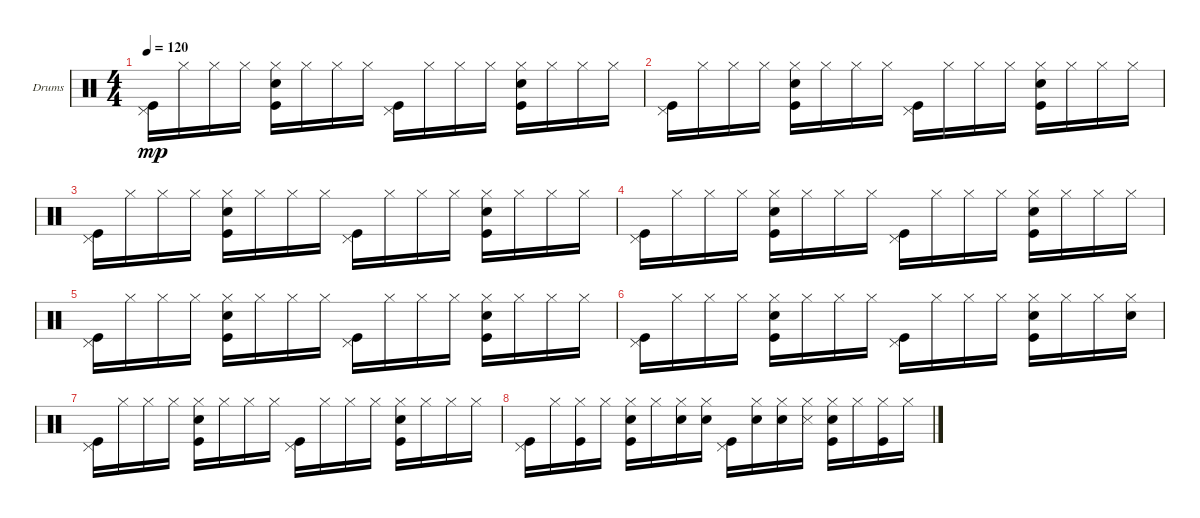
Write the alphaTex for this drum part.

\bracketExtendMode groupsimilarinstruments
\firstSystemTrackNameOrientation horizontal
\otherSystemsTrackNameOrientation horizontal
\track ("Ударные" "Drums") {instrument percussion}
\staff {score}
\articulation defaults
\ts (4 4)
\tempo 120
\clef neutral
\ks c
("Pedal Hi-Hat (hit)" "Kick (hit)").16{dy mp} "Hi-Hat (closed)".16 "Hi-Hat (closed)".16 "Hi-Hat (closed)".16 ("Hi-Hat (closed)" "Snare (hit) 2" "Kick (hit)").16 "Hi-Hat (closed)".16 "Hi-Hat (closed)".16 "Hi-Hat (closed)".16 ("Pedal Hi-Hat (hit)" "Kick (hit)").16 "Hi-Hat (closed)".16 "Hi-Hat (closed)".16 "Hi-Hat (closed)".16 ("Hi-Hat (closed)" "Snare (hit) 2" "Kick (hit)").16 "Hi-Hat (closed)".16 "Hi-Hat (closed)".16 "Hi-Hat (closed)".16 |
("Pedal Hi-Hat (hit)" "Kick (hit)").16 "Hi-Hat (closed)".16 "Hi-Hat (closed)".16 "Hi-Hat (closed)".16 ("Hi-Hat (closed)" "Snare (hit) 2" "Kick (hit)").16 "Hi-Hat (closed)".16 "Hi-Hat (closed)".16 "Hi-Hat (closed)".16 ("Pedal Hi-Hat (hit)" "Kick (hit)").16 "Hi-Hat (closed)".16 "Hi-Hat (closed)".16 "Hi-Hat (closed)".16 ("Hi-Hat (closed)" "Snare (hit) 2" "Kick (hit)").16 "Hi-Hat (closed)".16 "Hi-Hat (closed)".16 "Hi-Hat (closed)".16 |
("Pedal Hi-Hat (hit)" "Kick (hit)").16 "Hi-Hat (closed)".16 "Hi-Hat (closed)".16 "Hi-Hat (closed)".16 ("Hi-Hat (closed)" "Snare (hit) 2" "Kick (hit)").16 "Hi-Hat (closed)".16 "Hi-Hat (closed)".16 "Hi-Hat (closed)".16 ("Pedal Hi-Hat (hit)" "Kick (hit)").16 "Hi-Hat (closed)".16 "Hi-Hat (closed)".16 "Hi-Hat (closed)".16 ("Hi-Hat (closed)" "Snare (hit) 2" "Kick (hit)").16 "Hi-Hat (closed)".16 "Hi-Hat (closed)".16 "Hi-Hat (closed)".16 |
("Pedal Hi-Hat (hit)" "Kick (hit)").16 "Hi-Hat (closed)".16 "Hi-Hat (closed)".16 "Hi-Hat (closed)".16 ("Hi-Hat (closed)" "Snare (hit) 2" "Kick (hit)").16 "Hi-Hat (closed)".16 "Hi-Hat (closed)".16 "Hi-Hat (closed)".16 ("Pedal Hi-Hat (hit)" "Kick (hit)").16 "Hi-Hat (closed)".16 "Hi-Hat (closed)".16 "Hi-Hat (closed)".16 ("Hi-Hat (closed)" "Snare (hit) 2" "Kick (hit)").16 "Hi-Hat (closed)".16 "Hi-Hat (closed)".16 "Hi-Hat (closed)".16 |
("Pedal Hi-Hat (hit)" "Kick (hit)").16 "Hi-Hat (closed)".16 "Hi-Hat (closed)".16 "Hi-Hat (closed)".16 ("Hi-Hat (closed)" "Snare (hit) 2" "Kick (hit)").16 "Hi-Hat (closed)".16 "Hi-Hat (closed)".16 "Hi-Hat (closed)".16 ("Pedal Hi-Hat (hit)" "Kick (hit)").16 "Hi-Hat (closed)".16 "Hi-Hat (closed)".16 "Hi-Hat (closed)".16 ("Hi-Hat (closed)" "Snare (hit) 2" "Kick (hit)").16 "Hi-Hat (closed)".16 "Hi-Hat (closed)".16 "Hi-Hat (closed)".16 |
("Pedal Hi-Hat (hit)" "Kick (hit)").16 "Hi-Hat (closed)".16 "Hi-Hat (closed)".16 "Hi-Hat (closed)".16 ("Hi-Hat (closed)" "Snare (hit) 2" "Kick (hit)").16 "Hi-Hat (closed)".16 "Hi-Hat (closed)".16 "Hi-Hat (closed)".16 ("Pedal Hi-Hat (hit)" "Kick (hit)").16 "Hi-Hat (closed)".16 "Hi-Hat (closed)".16 "Hi-Hat (closed)".16 ("Hi-Hat (closed)" "Snare (hit) 2" "Kick (hit)").16 "Hi-Hat (closed)".16 "Hi-Hat (closed)".16 ("Hi-Hat (closed)" "Snare (hit) 2").16 |
("Pedal Hi-Hat (hit)" "Kick (hit)").16 "Hi-Hat (closed)".16 "Hi-Hat (closed)".16 "Hi-Hat (closed)".16 ("Hi-Hat (closed)" "Snare (hit) 2" "Kick (hit)").16 "Hi-Hat (closed)".16 "Hi-Hat (closed)".16 "Hi-Hat (closed)".16 ("Pedal Hi-Hat (hit)" "Kick (hit)").16 "Hi-Hat (closed)".16 "Hi-Hat (closed)".16 "Hi-Hat (closed)".16 ("Hi-Hat (closed)" "Snare (hit) 2" "Kick (hit)").16 "Hi-Hat (closed)".16 "Hi-Hat (closed)".16 "Hi-Hat (closed)".16 |
("Pedal Hi-Hat (hit)" "Kick (hit)").16 "Hi-Hat (closed)".16 ("Hi-Hat (closed)" "Kick (hit)").16 "Hi-Hat (closed)".16 ("Hi-Hat (closed)" "Snare (hit) 2" "Kick (hit)").16 "Hi-Hat (closed)".16 ("Hi-Hat (closed)" "Snare (hit) 2").16 ("Hi-Hat (closed)" "Snare (hit) 2").16 ("Pedal Hi-Hat (hit)" "Kick (hit)").16 ("Hi-Hat (closed)" "Snare (hit) 2").16 ("Hi-Hat (closed)" "Snare (hit) 2").16 ("Hi-Hat (closed)" "Snare (side stick) 3").16 ("Hi-Hat (closed)" "Snare (hit) 2" "Kick (hit)").16 "Hi-Hat (closed)".16 ("Hi-Hat (closed)" "Kick (hit)").16 "Hi-Hat (closed)".16
